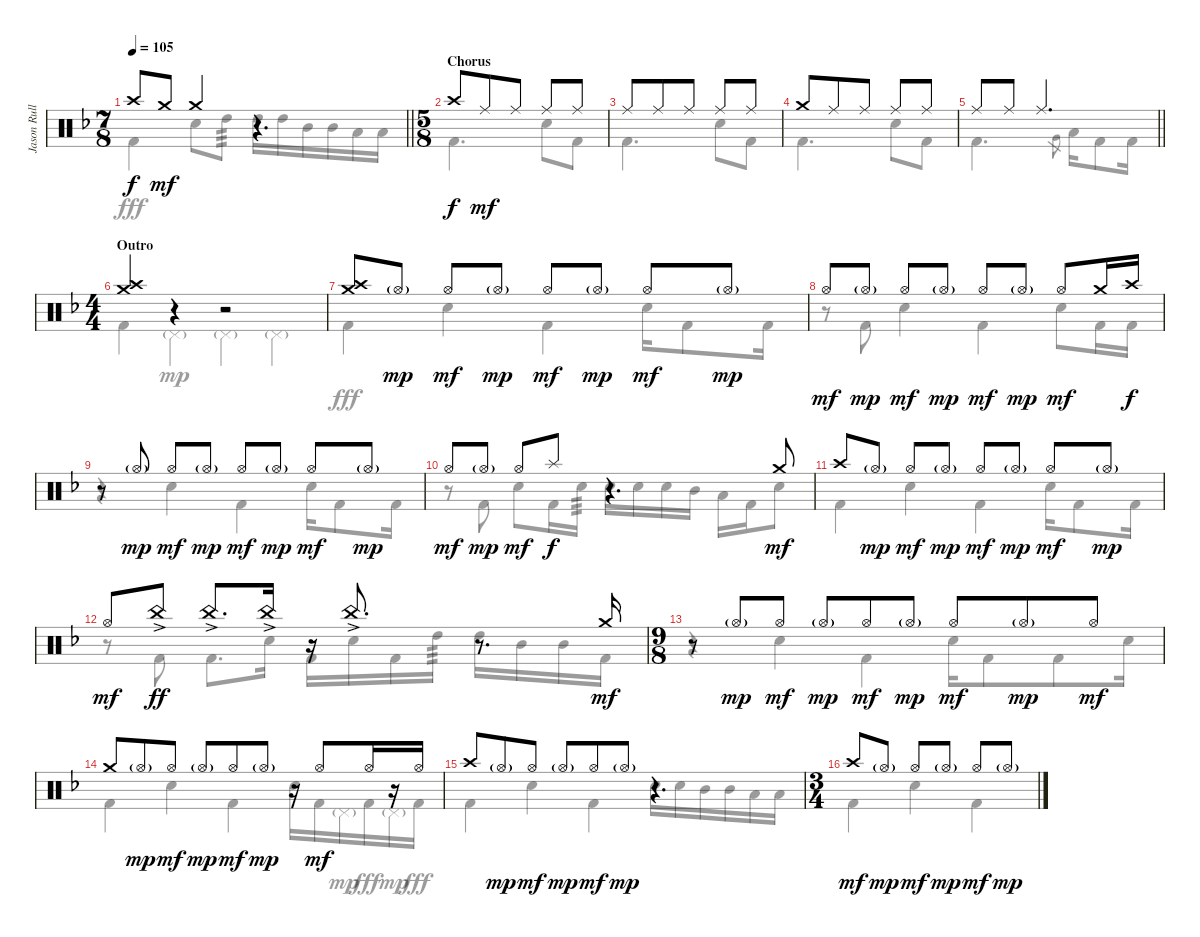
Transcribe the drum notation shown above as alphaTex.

\track ("Jason Rullo Drums" "Jason Rull") {instrument percussion}
\staff {score}
\articulation defaults
\voice
\ts (7 8)
\tempo 105
\clef neutral
\barLineRight lightlight
\ks dminor "Crash high (hit)".8{dy f} "Crash medium (hit)".8{dy mf} "Crash medium (hit)".4
r.4{d} |
\ts (5 8)
\section ("" "Chorus")
"Crash high (hit)".8{dy f} "Ride (middle)".8{dy mf} "Ride (middle)".8 "Ride (middle)".8 "Ride (middle)".8 |
"Ride (middle)".8 "Ride (middle)".8 "Ride (middle)".8 "Ride (middle)".8 "Ride (middle)".8 |
"Crash medium (hit)".8 "Ride (middle)".8 "Ride (middle)".8 "Ride (middle)".8 "Ride (middle)".8 |
\barLineRight lightlight "Ride (middle)".8 "Ride (middle)".8 "Ride (middle)".4{d}
|
\ts (4 4)
\section ("" "Outro")
("Crash high (hit)" "Crash medium (hit)").4 r.4 r.2 |
("Crash high (hit)" "Crash medium (hit)").8 "Hi-Hat (open)"{g}.8{dy mp} "Hi-Hat (open)".8{dy mf} "Hi-Hat (open)"{g}.8{dy mp} "Hi-Hat (open)".8{dy mf} "Hi-Hat (open)"{g}.8{dy mp} "Hi-Hat (open)".8{dy mf} "Hi-Hat (open)"{g}.8{dy mp} |
"Hi-Hat (open)".8{dy mf} "Hi-Hat (open)"{g}.8{dy mp} "Hi-Hat (open)".8{dy mf} "Hi-Hat (open)"{g}.8{dy mp} "Hi-Hat (open)".8{dy mf} "Hi-Hat (open)"{g}.8{dy mp} "Hi-Hat (open)".8{dy mf} "Crash medium (hit)".16 "Crash high (hit)".16{dy f} |
r.8 "Hi-Hat (open)"{g}.8{dy mp} "Hi-Hat (open)".8{dy mf} "Hi-Hat (open)"{g}.8{dy mp} "Hi-Hat (open)".8{dy mf} "Hi-Hat (open)"{g}.8{dy mp} "Hi-Hat (open)".8{dy mf} "Hi-Hat (open)"{g}.8{dy mp} |
"Hi-Hat (open)".8{dy mf} "Hi-Hat (open)"{g}.8{dy mp} "Hi-Hat (open)".8{dy mf} "Splash (hit)".8{dy f} r.4{d} "Crash medium (hit)".8{dy mf} |
"Crash high (hit)".8 "Hi-Hat (open)"{g}.8{dy mp} "Hi-Hat (open)".8{dy mf} "Hi-Hat (open)"{g}.8{dy mp} "Hi-Hat (open)".8{dy mf} "Hi-Hat (open)"{g}.8{dy mp} "Hi-Hat (open)".8{dy mf} "Hi-Hat (open)"{g}.8{dy mp} |
"Hi-Hat (open)".8{dy mf} "China (hit)"{ac}.8{dy ff} "China (hit)"{ac}.8{d} "China (hit)"{ac}.16 r.16 "China (hit)"{ac}.8{d} r.8{d} "Crash medium (hit)".16{dy mf} |
\ts (9 8)
r.8 "Hi-Hat (open)"{g}.8{dy mp} "Hi-Hat (open)".8{dy mf} "Hi-Hat (open)"{g}.8{dy mp} "Hi-Hat (open)".8{dy mf} "Hi-Hat (open)"{g}.8{dy mp} "Hi-Hat (open)".8{dy mf} "Hi-Hat (open)"{g}.8{dy mp} "Hi-Hat (open)".8{dy mf} |
"Crash medium (hit)".8 "Hi-Hat (open)"{g}.8{dy mp} "Hi-Hat (open)".8{dy mf} "Hi-Hat (open)"{g}.8{dy mp} "Hi-Hat (open)".8{dy mf} "Hi-Hat (open)"{g}.8{dy mp} r.16 "Hi-Hat (open)".8{dy mf} "Hi-Hat (open)".16 r.16 "Hi-Hat (open)".16 |
"Crash high (hit)".8 "Hi-Hat (open)"{g}.8{dy mp} "Hi-Hat (open)".8{dy mf} "Hi-Hat (open)"{g}.8{dy mp} "Hi-Hat (open)".8{dy mf} "Hi-Hat (open)"{g}.8{dy mp} r.4{d} |
\ts (3 4)
"Crash high (hit)".8{dy mf} "Hi-Hat (open)"{g}.8{dy mp} "Hi-Hat (open)".8{dy mf} "Hi-Hat (open)"{g}.8{dy mp} "Hi-Hat (open)".8{dy mf} "Hi-Hat (open)"{g}.8{dy mp}
\voice
\clef neutral
\ottava regular
\simile none
\barLineRight lightlight
\ks dminor "Kick (hit) 2".4{dy fff} "Electric Snare (hit)".8 "High Tom (hit)".8{tp 3} "High Tom (hit)".16 "High Tom (hit)".16 "Mid Tom (hit)".16 "Mid Tom (hit)".16 "Low Tom (hit)".16 "Low Tom (hit)".16
|
"Kick (hit) 2".4{d} "Electric Snare (hit)".8 "Kick (hit) 2".8 |
"Kick (hit) 2".4{d} "Electric Snare (hit)".8 "Kick (hit) 2".8 |
"Kick (hit) 2".4{d} "Electric Snare (hit)".8 "Kick (hit) 2".8 |
\barLineRight lightlight "Kick (hit) 2".4{d} "Very Low Tom (hit)".8{gr} "Low Tom (hit)".16 "Kick (hit) 2".8 "Kick (hit) 2".16
|
"Kick (hit) 2".4 "Pedal Hi-Hat (hit)"{g}.4{dy mp} "Pedal Hi-Hat (hit)"{g}.4 "Pedal Hi-Hat (hit)"{g}.4 |
"Kick (hit) 2".4{dy fff} "Electric Snare (hit)".4 "Kick (hit) 2".4 "Electric Snare (hit)".16 "Kick (hit) 2".8 "Kick (hit) 2".16 |
r.8 "Kick (hit) 2".8 "Electric Snare (hit)".4 "Kick (hit) 2".4 "Electric Snare (hit)".8 "Kick (hit) 2".16 "Kick (hit) 2".16 |
r.4 "Electric Snare (hit)".4 "Kick (hit) 2".4 "Electric Snare (hit)".16 "Kick (hit) 2".8 "Kick (hit) 2".16 |
r.8 "Kick (hit) 2".8 "Electric Snare (hit)".8 "Kick (hit) 2".16 "Electric Snare (hit)".16{tp 3} "Electric Snare (hit)".16 "Electric Snare (hit)".16 "Electric Snare (hit)".16 "Mid Tom (hit)".16 "Low Tom (hit)".16 "Kick (hit) 2".16 "Electric Snare (hit)".8 |
"Kick (hit) 2".4 "Electric Snare (hit)".4 "Kick (hit) 2".4 "Electric Snare (hit)".16 "Kick (hit) 2".8 "Kick (hit) 2".16 |
r.8 "Kick (hit) 2".8 "Kick (hit) 2".8{d} "Electric Snare (hit)".16 "Kick (hit) 2".16 "Electric Snare (hit)".16 "Kick (hit) 2".16 "High Tom (hit)".16{tp 3} "High Tom (hit)".16 "Mid Tom (hit)".16 "Mid Tom (hit)".16 "Kick (hit) 2".16 |
r.4 "Electric Snare (hit)".4 "Kick (hit) 2".4 "Electric Snare (hit)".16 "Kick (hit) 2".8 "Kick (hit) 2".8 "Electric Snare (hit)".16 |
"Kick (hit) 2".4 "Electric Snare (hit)".4 "Kick (hit) 2".4 "Electric Snare (hit)".16 "Kick (hit) 2".16 "Pedal Hi-Hat (hit)"{g}.16{dy mp} "Kick (hit) 2".16{dy fff} "Pedal Hi-Hat (hit)"{g}.16{dy mp} "Kick (hit) 2".16{dy fff} |
"Kick (hit) 2".4 "Electric Snare (hit)".4 "Kick (hit) 2".4 "Electric Snare (hit)".16 "Electric Snare (hit)".16 "Mid Tom (hit)".16 "Mid Tom (hit)".16 "Low Tom (hit)".16 "Low Tom (hit)".16 |
"Kick (hit) 2".4 "Electric Snare (hit)".4 "Kick (hit) 2".4
